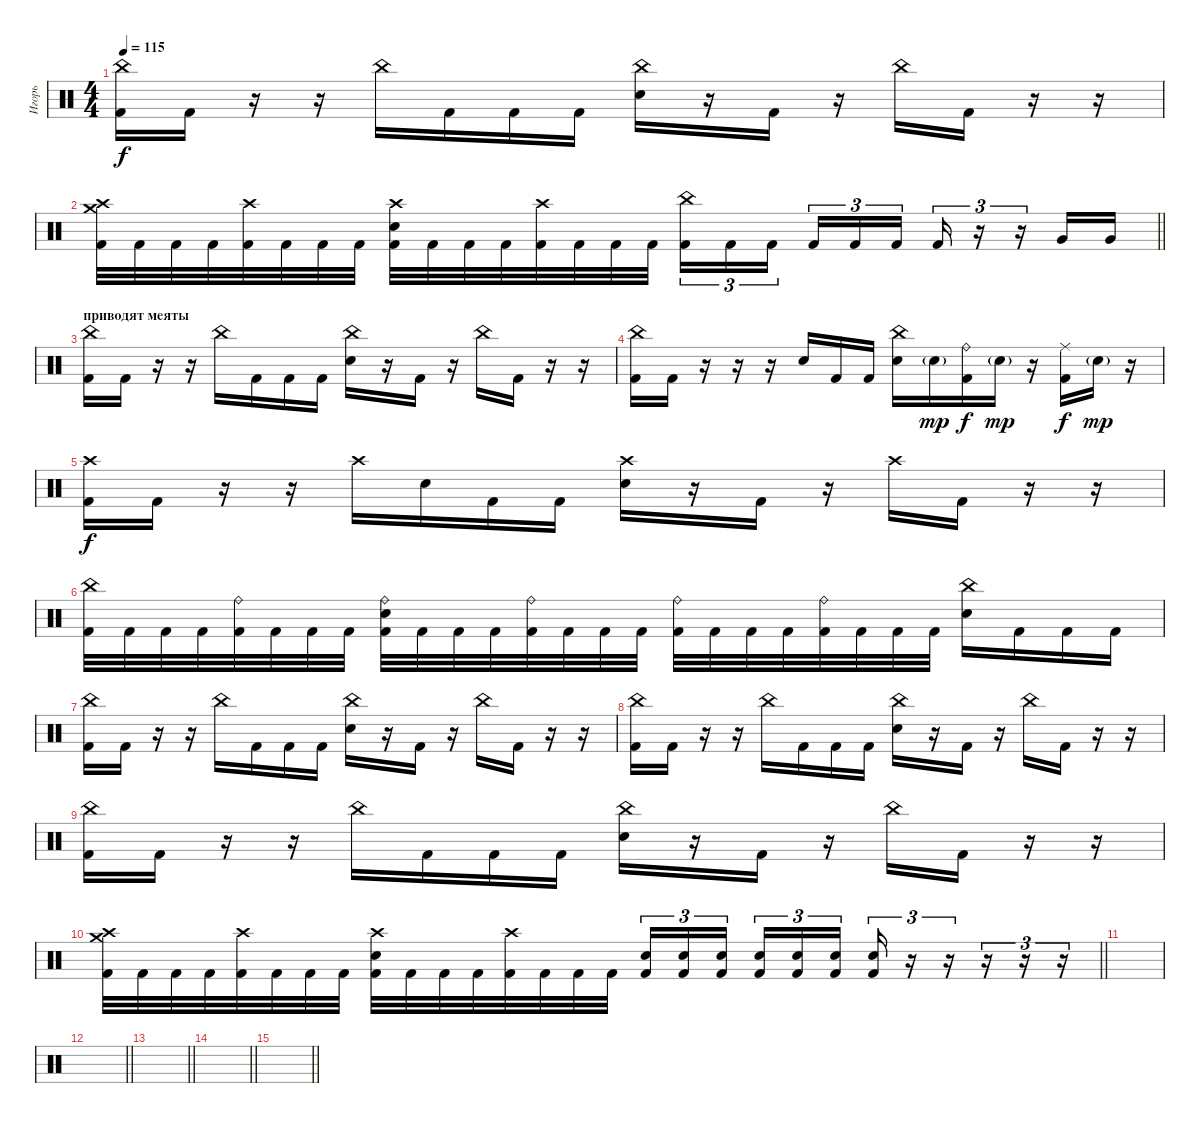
\track ("Игорь" "Игорь") {instrument percussion}
\staff {score}
\articulation defaults
\ts (4 4)
\tempo 115
\clef neutral
\ks c
("China (hit)" "Kick (hit) 2").16{dy f} "Kick (hit) 2".16 r.16 r.16 "China (hit)".16 "Kick (hit) 2".16 "Kick (hit) 2".16 "Kick (hit) 2".16 ("China (hit)" "Electric Snare (hit)").16 r.16 "Kick (hit) 2".16 r.16 "China (hit)".16 "Kick (hit) 2".16 r.16 r.16 |
\barLineRight lightlight
("Crash high (hit)" "Crash medium (hit)" "Kick (hit) 2").32 "Kick (hit) 2".32 "Kick (hit) 2".32 "Kick (hit) 2".32 ("Crash high (hit)" "Kick (hit) 2").32 "Kick (hit) 2".32 "Kick (hit) 2".32 "Kick (hit) 2".32 ("Crash high (hit)" "Electric Snare (hit)" "Kick (hit) 2").32 "Kick (hit) 2".32 "Kick (hit) 2".32 "Kick (hit) 2".32 ("Crash high (hit)" "Kick (hit) 2").32 "Kick (hit) 2".32 "Kick (hit) 2".32 "Kick (hit) 2".32 ("China (hit)" "Kick (hit) 2").16{tu (3 2)} "Kick (hit) 2".16{tu (3 2)} "Kick (hit) 2".16{tu (3 2) beam splitsecondary} "Kick (hit) 2".16{tu (3 2)} "Kick (hit) 2".16{tu (3 2)} "Kick (hit) 2".16{tu (3 2)} "Kick (hit) 2".16{tu (3 2)} r.16{tu (3 2)} r.16{tu (3 2)} "Very Low Tom (hit)".16 "Very Low Tom (hit)".16 |
\section ("" "приводят меяты")
("China (hit)" "Kick (hit) 2").16 "Kick (hit) 2".16 r.16 r.16 "China (hit)".16 "Kick (hit) 2".16 "Kick (hit) 2".16 "Kick (hit) 2".16 ("China (hit)" "Electric Snare (hit)").16 r.16 "Kick (hit) 2".16 r.16 "China (hit)".16 "Kick (hit) 2".16 r.16 r.16 |
("China (hit)" "Kick (hit) 2").16 "Kick (hit) 2".16 r.16 r.16 r.16 "Electric Snare (hit)".16 "Kick (hit) 2".16 "Kick (hit) 2".16 ("China (hit)" "Electric Snare (hit)").16 "Electric Snare (hit)"{g}.16{dy mp} ("Ride (bell)" "Kick (hit) 2").16{dy f} "Electric Snare (hit)"{g}.16{dy mp} r.16 ("Ride (middle)" "Kick (hit) 2").16{dy f} "Electric Snare (hit)"{g}.16{dy mp} r.16 |
("Crash high (hit)" "Kick (hit) 2").16{dy f} "Kick (hit) 2".16 r.16 r.16 "Crash high (hit)".16 "Electric Snare (hit)".16 "Kick (hit) 2".16 "Kick (hit) 2".16 ("Crash high (hit)" "Electric Snare (hit)").16 r.16 "Kick (hit) 2".16 r.16 "Crash high (hit)".16 "Kick (hit) 2".16 r.16 r.16 |
("China (hit)" "Kick (hit) 2").32 "Kick (hit) 2".32 "Kick (hit) 2".32 "Kick (hit) 2".32 ("Ride (bell)" "Kick (hit) 2").32 "Kick (hit) 2".32 "Kick (hit) 2".32 "Kick (hit) 2".32 ("Ride (bell)" "Electric Snare (hit)" "Kick (hit) 2").32 "Kick (hit) 2".32 "Kick (hit) 2".32 "Kick (hit) 2".32 ("Ride (bell)" "Kick (hit) 2").32 "Kick (hit) 2".32 "Kick (hit) 2".32 "Kick (hit) 2".32 ("Ride (bell)" "Kick (hit) 2").32 "Kick (hit) 2".32 "Kick (hit) 2".32 "Kick (hit) 2".32 ("Ride (bell)" "Kick (hit) 2").32 "Kick (hit) 2".32 "Kick (hit) 2".32 "Kick (hit) 2".32 ("China (hit)" "Electric Snare (hit)").16 "Kick (hit) 2".16 "Kick (hit) 2".16 "Kick (hit) 2".16 |
("China (hit)" "Kick (hit) 2").16 "Kick (hit) 2".16 r.16 r.16 "China (hit)".16 "Kick (hit) 2".16 "Kick (hit) 2".16 "Kick (hit) 2".16 ("China (hit)" "Electric Snare (hit)").16 r.16 "Kick (hit) 2".16 r.16 "China (hit)".16 "Kick (hit) 2".16 r.16 r.16 |
("China (hit)" "Kick (hit) 2").16 "Kick (hit) 2".16 r.16 r.16 "China (hit)".16 "Kick (hit) 2".16 "Kick (hit) 2".16 "Kick (hit) 2".16 ("China (hit)" "Electric Snare (hit)").16 r.16 "Kick (hit) 2".16 r.16 "China (hit)".16 "Kick (hit) 2".16 r.16 r.16 |
("China (hit)" "Kick (hit) 2").16 "Kick (hit) 2".16 r.16 r.16 "China (hit)".16 "Kick (hit) 2".16 "Kick (hit) 2".16 "Kick (hit) 2".16 ("China (hit)" "Electric Snare (hit)").16 r.16 "Kick (hit) 2".16 r.16 "China (hit)".16 "Kick (hit) 2".16 r.16 r.16 |
\barLineRight lightlight
("Crash high (hit)" "Crash medium (hit)" "Kick (hit) 2").32 "Kick (hit) 2".32 "Kick (hit) 2".32 "Kick (hit) 2".32 ("Crash high (hit)" "Kick (hit) 2").32 "Kick (hit) 2".32 "Kick (hit) 2".32 "Kick (hit) 2".32 ("Crash high (hit)" "Electric Snare (hit)" "Kick (hit) 2").32 "Kick (hit) 2".32 "Kick (hit) 2".32 "Kick (hit) 2".32 ("Crash high (hit)" "Kick (hit) 2").32 "Kick (hit) 2".32 "Kick (hit) 2".32 "Kick (hit) 2".32 ("Electric Snare (hit)" "Kick (hit) 2").16{tu (3 2)} ("Electric Snare (hit)" "Kick (hit) 2").16{tu (3 2)} ("Electric Snare (hit)" "Kick (hit) 2").16{tu (3 2) beam splitsecondary} ("Electric Snare (hit)" "Kick (hit) 2").16{tu (3 2)} ("Electric Snare (hit)" "Kick (hit) 2").16{tu (3 2)} ("Electric Snare (hit)" "Kick (hit) 2").16{tu (3 2)} ("Electric Snare (hit)" "Kick (hit) 2").16{tu (3 2)} r.16{tu (3 2)} r.16{tu (3 2)} r.16{tu (3 2)} r.16{tu (3 2)} r.16{tu (3 2)} |
|
\barLineRight lightlight
|
\barLineRight lightlight
|
\barLineRight lightlight
|
\barLineRight lightlight
